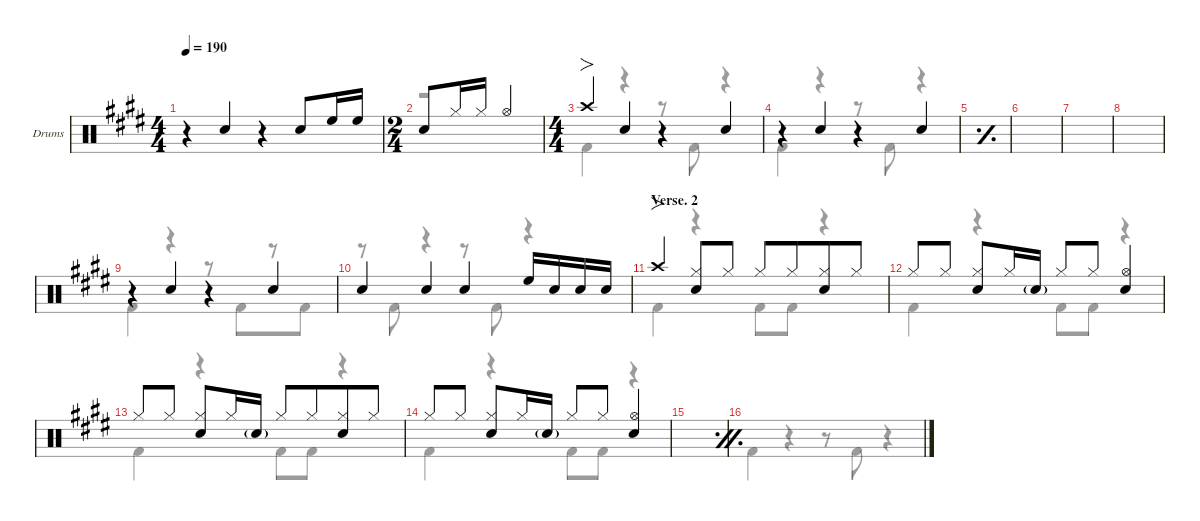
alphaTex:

\defaultSystemsLayout 4
\hideDynamics
\bracketExtendMode nobrackets
\firstSystemTrackNameOrientation horizontal
\track ("Drums" "Drums") {defaultSystemsLayout 4 instrument percussion}
\staff {score}
\articulation defaults
\voice
\ts (4 4)
\tempo 190
\clef neutral
\scale
0.24446
\ks e
r.4{dy f beam Up} "Snare (hit) 2"{acc forcenatural}.4{beam Up} r.4{beam Up} "Snare (hit) 2"{acc forcenatural}.8{beam Up} "High Floor Tom (hit)"{acc forcenatural}.16{beam Up} "High Floor Tom (hit)"{acc forcenatural}.16{beam Up} |
\ts (2 4)
\beaming (8 2 2)
\scale
0.244461 "Snare (hit) 2"{acc forcenatural}.8{beam Up} "Hi-Hat (closed)"{acc forcenatural}.16{beam Up} "Hi-Hat (closed)"{acc forcenatural}.16{dy mf beam Up} "Hi-Hat (open)"{acc forcenatural}.4{dy f beam Up} |
\ts (4 4)
\beaming (8 4 4)
\scale
0.266618 "Crash high (hit)"{acc forcenatural}.4{fo beam Up} "Snare (hit) 2"{acc forcenatural}.4{beam Up} r.4{beam Up} "Snare (hit) 2"{acc forcenatural}.4{beam Up} |
\scale
0.244461 r.4{beam Up} "Snare (hit) 2"{acc forcenatural}.4{beam Up} r.4{beam Up} "Snare (hit) 2"{acc forcenatural}.4{beam Up} |
\simile simple
\scale
0.244461 |
\scale
0.244461 |
\scale
0.266618 |
\scale
0.244461 |
\simile none
\scale
0.24446 r.4{beam Up} "Snare (hit) 2"{acc forcenatural}.4{beam Up} r.4{beam Up} "Snare (hit) 2"{acc forcenatural}.4{beam Up} |
\scale
0.244461 "Snare (hit) 2"{acc forcenatural}.4{beam Up} "Snare (hit) 2"{acc forcenatural}.4{beam Up} "Snare (hit) 2"{acc forcenatural}.4{beam Up} "High Floor Tom (hit)"{acc forcenatural}.16{beam Up} "Snare (hit) 2"{acc forcenatural}.16{dy mf beam Up} "Snare (hit) 2"{acc forcenatural}.16{dy f beam Up} "Snare (hit) 2"{acc forcenatural}.16{dy mf beam Up beam split} |
\section ("" "Verse. 2")
\scale
0.266618 "Crash high (hit)"{acc forcenatural}.4{fo dy f beam Up} ("Hi-Hat (closed)"{acc forcenatural} "Snare (hit) 2"{acc forcenatural}).8{beam Up} "Hi-Hat (closed)"{acc forcenatural}.8{dy mf beam Up} "Hi-Hat (closed)"{acc forcenatural}.8{dy f beam Up} "Hi-Hat (closed)"{acc forcenatural}.8{dy mf beam Up} ("Hi-Hat (closed)"{acc forcenatural} "Snare (hit) 2"{acc forcenatural}).8{dy f beam Up} "Hi-Hat (closed)"{acc forcenatural}.8{dy mf beam Up} |
\scale
0.244461 "Hi-Hat (closed)"{acc forcenatural}.8{dy f beam Up} "Hi-Hat (closed)"{acc forcenatural}.8{dy mf beam Up beam split} ("Hi-Hat (closed)"{acc forcenatural} "Snare (hit) 2"{acc forcenatural}).8{dy f beam Up} "Hi-Hat (closed)"{acc forcenatural}.16{dy mf beam Up} "Snare (hit) 2"{g acc forcenatural}.16{beam Up} "Hi-Hat (closed)"{acc forcenatural}.8{dy f beam Up} "Hi-Hat (closed)"{acc forcenatural}.8{dy mf beam Up} ("Hi-Hat (open)"{acc forcenatural} "Snare (hit) 2"{acc forcenatural}).4{dy f beam Up} |
\scale
0.24446 "Hi-Hat (closed)"{acc forcenatural}.8{beam Up} "Hi-Hat (closed)"{acc forcenatural}.8{dy mf beam Up beam split} ("Hi-Hat (closed)"{acc forcenatural} "Snare (hit) 2"{acc forcenatural}).8{dy f beam Up} "Hi-Hat (closed)"{acc forcenatural}.16{dy mf beam Up} "Snare (hit) 2"{g acc forcenatural}.16{beam Up} "Hi-Hat (closed)"{acc forcenatural}.8{dy f beam Up} "Hi-Hat (closed)"{acc forcenatural}.8{dy mf beam Up} ("Hi-Hat (closed)"{acc forcenatural} "Snare (hit) 2"{acc forcenatural}).8{dy f beam Up} "Hi-Hat (closed)"{acc forcenatural}.8{dy mf beam Up} |
\scale
0.244461 "Hi-Hat (closed)"{acc forcenatural}.8{dy f beam Up} "Hi-Hat (closed)"{acc forcenatural}.8{dy mf beam Up beam split} ("Hi-Hat (closed)"{acc forcenatural} "Snare (hit) 2"{acc forcenatural}).8{dy f beam Up} "Hi-Hat (closed)"{acc forcenatural}.16{dy mf beam Up} "Snare (hit) 2"{g acc forcenatural}.16{beam Up} "Hi-Hat (closed)"{acc forcenatural}.8{dy f beam Up} "Hi-Hat (closed)"{acc forcenatural}.8{dy mf beam Up} ("Hi-Hat (open)"{acc forcenatural} "Snare (hit) 2"{acc forcenatural}).4{dy f beam Up} |
\simile firstofdouble
\scale
0.266618 |
\simile secondofdouble
\scale
0.24446
\voice
\clef neutral
\ottava regular
\simile none
\scale
0.24446
\ks e "Kick (hit) 2"{acc forcenatural}.4{dy f beam Down}
r.4{beam Down} r.8{beam Down} "Kick (hit) 2"{acc forcenatural}.8{beam Down} r.4{beam Down} |
\scale
0.244461 r.2{beam Down} |
\scale
0.266618 "Kick (hit) 2"{acc forcenatural}.4{beam Down} r.4{beam Down} r.8{beam Down} "Kick (hit) 2"{acc forcenatural}.8{beam Down} r.4{beam Down} |
\scale
0.244461 "Kick (hit) 2"{acc forcenatural}.4{beam Down} r.4{beam Down} r.8{beam Down} "Kick (hit) 2"{acc forcenatural}.8{beam Down} r.4{beam Down} |
\simile simple
\scale
0.244461 |
\scale
0.244461 |
\scale
0.266618 |
\scale
0.244461 |
\simile none
\scale
0.24446 "Kick (hit) 2"{acc forcenatural}.4{beam Down} r.4{beam Down} r.8{beam Down} "Kick (hit) 2"{acc forcenatural}.8{beam Down} r.8{beam Down} "Kick (hit) 2"{acc forcenatural}.8{beam Down} |
\scale
0.244461 r.8{beam Down} "Kick (hit) 2"{acc forcenatural}.8{beam Down} r.4{beam Down} r.8{beam Down} "Kick (hit) 2"{acc forcenatural}.8{beam Down} r.4{beam Down} |
\scale
0.266618 "Kick (hit) 2"{acc forcenatural}.4{beam Down} r.4{beam Down} "Kick (hit) 2"{acc forcenatural}.8{beam Down} "Kick (hit) 2"{acc forcenatural}.8{beam Down} r.4{beam Down} |
\scale
0.244461 "Kick (hit) 2"{acc forcenatural}.4{beam Down} r.4{beam Down} "Kick (hit) 2"{acc forcenatural}.8{beam Down} "Kick (hit) 2"{acc forcenatural}.8{beam Down} r.4{beam Down} |
\scale
0.24446 "Kick (hit) 2"{acc forcenatural}.4{beam Down} r.4{beam Down} "Kick (hit) 2"{acc forcenatural}.8{beam Down} "Kick (hit) 2"{acc forcenatural}.8{beam Down} r.4{beam Down} |
\scale
0.244461 "Kick (hit) 2"{acc forcenatural}.4{beam Down} r.4{beam Down} "Kick (hit) 2"{acc forcenatural}.8{beam Down} "Kick (hit) 2"{acc forcenatural}.8{beam Down} r.4{beam Down} |
\simile firstofdouble
\scale
0.266618 |
\simile secondofdouble
\scale
0.24446
